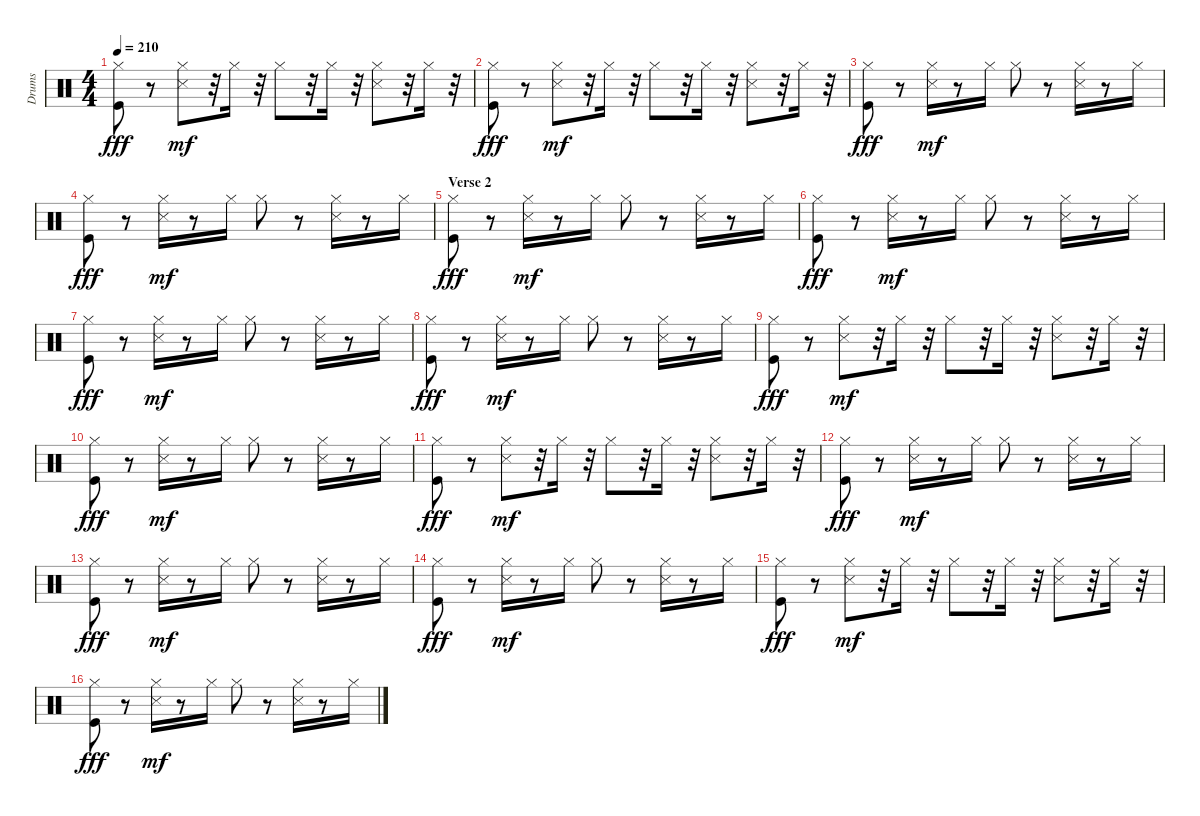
\track ("Drums" "Drums") {instrument percussion}
\staff {score}
\articulation defaults
\ts (4 4)
\tempo 210
\clef neutral
\ks c
("Hi-Hat (closed)" "Kick (hit)").8{dy fff} r.8 ("Hi-Hat (closed)" "Snare (side stick) 3").8{dy mf} r.32 "Hi-Hat (closed)".16 r.32 "Hi-Hat (closed)".8 r.32 "Hi-Hat (closed)".16 r.32 ("Hi-Hat (closed)" "Snare (side stick) 3").8 r.32 "Hi-Hat (closed)".16 r.32 |
("Hi-Hat (closed)" "Kick (hit)").8{dy fff} r.8 ("Hi-Hat (closed)" "Snare (side stick) 3").8{dy mf} r.32 "Hi-Hat (closed)".16 r.32 "Hi-Hat (closed)".8 r.32 "Hi-Hat (closed)".16 r.32 ("Hi-Hat (closed)" "Snare (side stick) 3").8 r.32 "Hi-Hat (closed)".16 r.32 |
("Hi-Hat (closed)" "Kick (hit)").8{dy fff} r.8 ("Hi-Hat (closed)" "Snare (side stick) 3").16{dy mf} r.8 "Hi-Hat (closed)".16 "Hi-Hat (closed)".8 r.8 ("Hi-Hat (closed)" "Snare (side stick) 3").16 r.8 "Hi-Hat (closed)".16 |
("Hi-Hat (closed)" "Kick (hit)").8{dy fff} r.8 ("Hi-Hat (closed)" "Snare (side stick) 3").16{dy mf} r.8 "Hi-Hat (closed)".16 "Hi-Hat (closed)".8 r.8 ("Hi-Hat (closed)" "Snare (side stick) 3").16 r.8 "Hi-Hat (closed)".16 |
\section ("" "Verse 2")
("Hi-Hat (closed)" "Kick (hit)").8{dy fff} r.8 ("Hi-Hat (closed)" "Snare (side stick) 3").16{dy mf} r.8 "Hi-Hat (closed)".16 "Hi-Hat (closed)".8 r.8 ("Hi-Hat (closed)" "Snare (side stick) 3").16 r.8 "Hi-Hat (closed)".16 |
("Hi-Hat (closed)" "Kick (hit)").8{dy fff} r.8 ("Hi-Hat (closed)" "Snare (side stick) 3").16{dy mf} r.8 "Hi-Hat (closed)".16 "Hi-Hat (closed)".8 r.8 ("Hi-Hat (closed)" "Snare (side stick) 3").16 r.8 "Hi-Hat (closed)".16 |
("Hi-Hat (closed)" "Kick (hit)").8{dy fff} r.8 ("Hi-Hat (closed)" "Snare (side stick) 3").16{dy mf} r.8 "Hi-Hat (closed)".16 "Hi-Hat (closed)".8 r.8 ("Hi-Hat (closed)" "Snare (side stick) 3").16 r.8 "Hi-Hat (closed)".16 |
("Hi-Hat (closed)" "Kick (hit)").8{dy fff} r.8 ("Hi-Hat (closed)" "Snare (side stick) 3").16{dy mf} r.8 "Hi-Hat (closed)".16 "Hi-Hat (closed)".8 r.8 ("Hi-Hat (closed)" "Snare (side stick) 3").16 r.8 "Hi-Hat (closed)".16 |
("Hi-Hat (closed)" "Kick (hit)").8{dy fff} r.8 ("Hi-Hat (closed)" "Snare (side stick) 3").8{dy mf} r.32 "Hi-Hat (closed)".16 r.32 "Hi-Hat (closed)".8 r.32 "Hi-Hat (closed)".16 r.32 ("Hi-Hat (closed)" "Snare (side stick) 3").8 r.32 "Hi-Hat (closed)".16 r.32 |
("Hi-Hat (closed)" "Kick (hit)").8{dy fff} r.8 ("Hi-Hat (closed)" "Snare (side stick) 3").16{dy mf} r.8 "Hi-Hat (closed)".16 "Hi-Hat (closed)".8 r.8 ("Hi-Hat (closed)" "Snare (side stick) 3").16 r.8 "Hi-Hat (closed)".16 |
("Hi-Hat (closed)" "Kick (hit)").8{dy fff} r.8 ("Hi-Hat (closed)" "Snare (side stick) 3").8{dy mf} r.32 "Hi-Hat (closed)".16 r.32 "Hi-Hat (closed)".8 r.32 "Hi-Hat (closed)".16 r.32 ("Hi-Hat (closed)" "Snare (side stick) 3").8 r.32 "Hi-Hat (closed)".16 r.32 |
("Hi-Hat (closed)" "Kick (hit)").8{dy fff} r.8 ("Hi-Hat (closed)" "Snare (side stick) 3").16{dy mf} r.8 "Hi-Hat (closed)".16 "Hi-Hat (closed)".8 r.8 ("Hi-Hat (closed)" "Snare (side stick) 3").16 r.8 "Hi-Hat (closed)".16 |
("Hi-Hat (closed)" "Kick (hit)").8{dy fff} r.8 ("Hi-Hat (closed)" "Snare (side stick) 3").16{dy mf} r.8 "Hi-Hat (closed)".16 "Hi-Hat (closed)".8 r.8 ("Hi-Hat (closed)" "Snare (side stick) 3").16 r.8 "Hi-Hat (closed)".16 |
("Hi-Hat (closed)" "Kick (hit)").8{dy fff} r.8 ("Hi-Hat (closed)" "Snare (side stick) 3").16{dy mf} r.8 "Hi-Hat (closed)".16 "Hi-Hat (closed)".8 r.8 ("Hi-Hat (closed)" "Snare (side stick) 3").16 r.8 "Hi-Hat (closed)".16 |
("Hi-Hat (closed)" "Kick (hit)").8{dy fff} r.8 ("Hi-Hat (closed)" "Snare (side stick) 3").8{dy mf} r.32 "Hi-Hat (closed)".16 r.32 "Hi-Hat (closed)".8 r.32 "Hi-Hat (closed)".16 r.32 ("Hi-Hat (closed)" "Snare (side stick) 3").8 r.32 "Hi-Hat (closed)".16 r.32 |
("Hi-Hat (closed)" "Kick (hit)").8{dy fff} r.8 ("Hi-Hat (closed)" "Snare (side stick) 3").16{dy mf} r.8 "Hi-Hat (closed)".16 "Hi-Hat (closed)".8 r.8 ("Hi-Hat (closed)" "Snare (side stick) 3").16 r.8 "Hi-Hat (closed)".16
